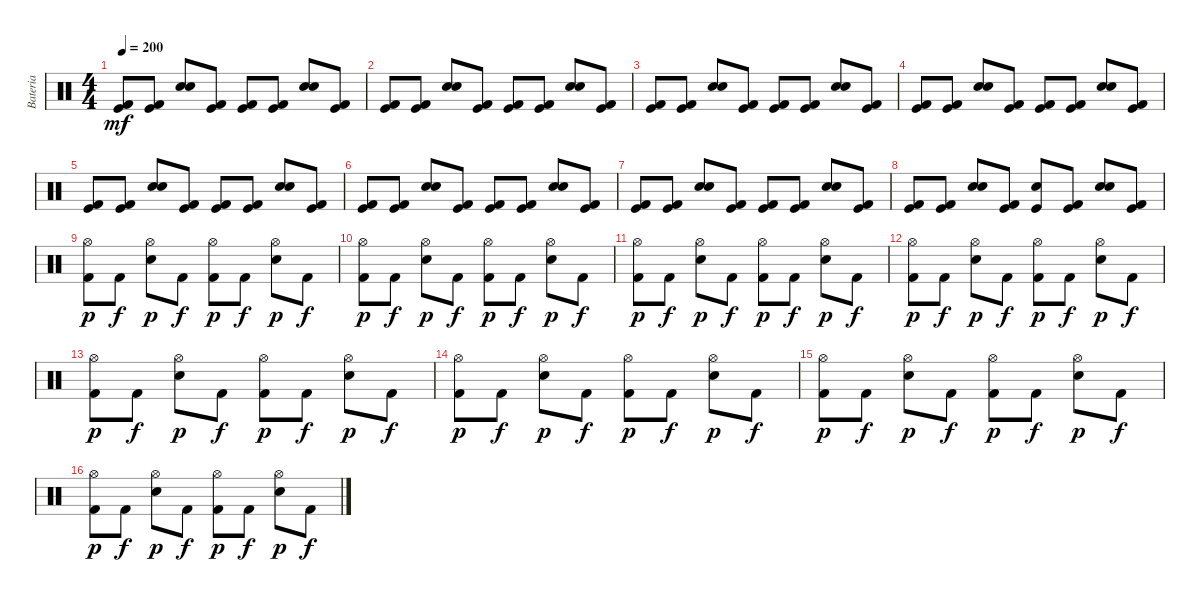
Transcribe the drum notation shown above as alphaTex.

\track ("Bateria" "Bateria") {instrument percussion}
\staff {score}
\articulation defaults
\ts (4 4)
\tempo 200
\clef neutral
\ks c
("Kick (hit)" "Kick (hit) 2").8{dy mf} ("Kick (hit)" "Kick (hit) 2").8 ("Electric Snare (hit)" "Snare (hit) 2").8 ("Kick (hit)" "Kick (hit) 2").8 ("Kick (hit)" "Kick (hit) 2").8 ("Kick (hit)" "Kick (hit) 2").8 ("Electric Snare (hit)" "Snare (hit) 2").8 ("Kick (hit)" "Kick (hit) 2").8 |
("Kick (hit)" "Kick (hit) 2").8 ("Kick (hit)" "Kick (hit) 2").8 ("Electric Snare (hit)" "Snare (hit) 2").8 ("Kick (hit)" "Kick (hit) 2").8 ("Kick (hit)" "Kick (hit) 2").8 ("Kick (hit)" "Kick (hit) 2").8 ("Electric Snare (hit)" "Snare (hit) 2").8 ("Kick (hit)" "Kick (hit) 2").8 |
("Kick (hit)" "Kick (hit) 2").8 ("Kick (hit)" "Kick (hit) 2").8 ("Electric Snare (hit)" "Snare (hit) 2").8 ("Kick (hit)" "Kick (hit) 2").8 ("Kick (hit)" "Kick (hit) 2").8 ("Kick (hit)" "Kick (hit) 2").8 ("Electric Snare (hit)" "Snare (hit) 2").8 ("Kick (hit)" "Kick (hit) 2").8 |
("Kick (hit)" "Kick (hit) 2").8 ("Kick (hit)" "Kick (hit) 2").8 ("Electric Snare (hit)" "Snare (hit) 2").8 ("Kick (hit)" "Kick (hit) 2").8 ("Kick (hit)" "Kick (hit) 2").8 ("Kick (hit)" "Kick (hit) 2").8 ("Electric Snare (hit)" "Snare (hit) 2").8 ("Kick (hit)" "Kick (hit) 2").8 |
("Kick (hit)" "Kick (hit) 2").8 ("Kick (hit)" "Kick (hit) 2").8 ("Electric Snare (hit)" "Snare (hit) 2").8 ("Kick (hit)" "Kick (hit) 2").8 ("Kick (hit)" "Kick (hit) 2").8 ("Kick (hit)" "Kick (hit) 2").8 ("Electric Snare (hit)" "Snare (hit) 2").8 ("Kick (hit)" "Kick (hit) 2").8 |
("Kick (hit)" "Kick (hit) 2").8 ("Kick (hit)" "Kick (hit) 2").8 ("Electric Snare (hit)" "Snare (hit) 2").8 ("Kick (hit)" "Kick (hit) 2").8 ("Kick (hit)" "Kick (hit) 2").8 ("Kick (hit)" "Kick (hit) 2").8 ("Electric Snare (hit)" "Snare (hit) 2").8 ("Kick (hit)" "Kick (hit) 2").8 |
("Kick (hit)" "Kick (hit) 2").8 ("Kick (hit)" "Kick (hit) 2").8 ("Electric Snare (hit)" "Snare (hit) 2").8 ("Kick (hit)" "Kick (hit) 2").8 ("Kick (hit) 2" "Kick (hit)").8 ("Kick (hit)" "Kick (hit) 2").8 ("Electric Snare (hit)" "Snare (hit) 2").8 ("Kick (hit)" "Kick (hit) 2").8 |
("Kick (hit)" "Kick (hit) 2").8 ("Kick (hit)" "Kick (hit) 2").8 ("Electric Snare (hit)" "Snare (hit) 2").8 ("Kick (hit)" "Kick (hit) 2").8 ("Electric Snare (hit)" "Kick (hit)").8 ("Kick (hit)" "Kick (hit) 2").8 ("Electric Snare (hit)" "Snare (hit) 2").8 ("Kick (hit)" "Kick (hit) 2").8 |
("Kick (hit) 2" "Hi-Hat (open)").8{dy p} "Kick (hit) 2".8{dy f} ("Electric Snare (hit)" "Hi-Hat (open)").8{dy p} "Kick (hit) 2".8{dy f} ("Kick (hit) 2" "Hi-Hat (open)").8{dy p} "Kick (hit) 2".8{dy f} ("Electric Snare (hit)" "Hi-Hat (open)").8{dy p} "Kick (hit) 2".8{dy f} |
("Kick (hit) 2" "Hi-Hat (open)").8{dy p} "Kick (hit) 2".8{dy f} ("Electric Snare (hit)" "Hi-Hat (open)").8{dy p} "Kick (hit) 2".8{dy f} ("Kick (hit) 2" "Hi-Hat (open)").8{dy p} "Kick (hit) 2".8{dy f} ("Electric Snare (hit)" "Hi-Hat (open)").8{dy p} "Kick (hit) 2".8{dy f} |
("Kick (hit) 2" "Hi-Hat (open)").8{dy p} "Kick (hit) 2".8{dy f} ("Electric Snare (hit)" "Hi-Hat (open)").8{dy p} "Kick (hit) 2".8{dy f} ("Kick (hit) 2" "Hi-Hat (open)").8{dy p} "Kick (hit) 2".8{dy f} ("Electric Snare (hit)" "Hi-Hat (open)").8{dy p} "Kick (hit) 2".8{dy f} |
("Kick (hit) 2" "Hi-Hat (open)").8{dy p} "Kick (hit) 2".8{dy f} ("Electric Snare (hit)" "Hi-Hat (open)").8{dy p} "Kick (hit) 2".8{dy f} ("Kick (hit) 2" "Hi-Hat (open)").8{dy p} "Kick (hit) 2".8{dy f} ("Electric Snare (hit)" "Hi-Hat (open)").8{dy p} "Kick (hit) 2".8{dy f} |
("Kick (hit) 2" "Hi-Hat (open)").8{dy p} "Kick (hit) 2".8{dy f} ("Electric Snare (hit)" "Hi-Hat (open)").8{dy p} "Kick (hit) 2".8{dy f} ("Kick (hit) 2" "Hi-Hat (open)").8{dy p} "Kick (hit) 2".8{dy f} ("Electric Snare (hit)" "Hi-Hat (open)").8{dy p} "Kick (hit) 2".8{dy f} |
("Kick (hit) 2" "Hi-Hat (open)").8{dy p} "Kick (hit) 2".8{dy f} ("Electric Snare (hit)" "Hi-Hat (open)").8{dy p} "Kick (hit) 2".8{dy f} ("Kick (hit) 2" "Hi-Hat (open)").8{dy p} "Kick (hit) 2".8{dy f} ("Electric Snare (hit)" "Hi-Hat (open)").8{dy p} "Kick (hit) 2".8{dy f} |
("Kick (hit) 2" "Hi-Hat (open)").8{dy p} "Kick (hit) 2".8{dy f} ("Electric Snare (hit)" "Hi-Hat (open)").8{dy p} "Kick (hit) 2".8{dy f} ("Kick (hit) 2" "Hi-Hat (open)").8{dy p} "Kick (hit) 2".8{dy f} ("Electric Snare (hit)" "Hi-Hat (open)").8{dy p} "Kick (hit) 2".8{dy f} |
("Kick (hit) 2" "Hi-Hat (open)").8{dy p} "Kick (hit) 2".8{dy f} ("Electric Snare (hit)" "Hi-Hat (open)").8{dy p} "Kick (hit) 2".8{dy f} ("Kick (hit) 2" "Hi-Hat (open)").8{dy p} "Kick (hit) 2".8{dy f} ("Electric Snare (hit)" "Hi-Hat (open)").8{dy p} "Kick (hit) 2".8{dy f}
